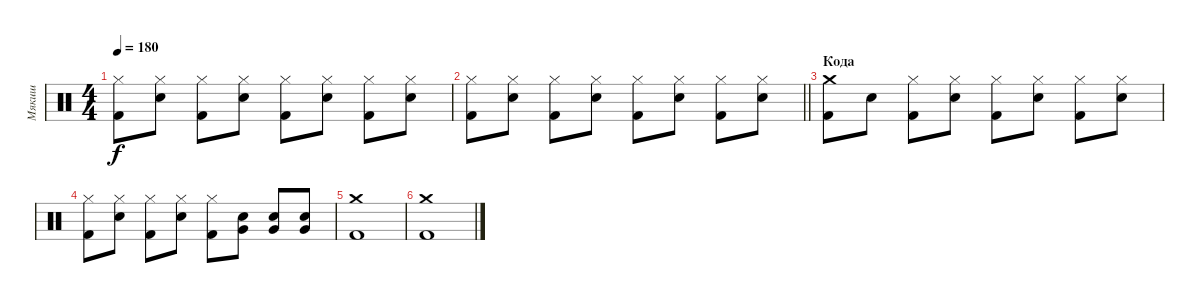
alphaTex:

\track ("Мякиш" "Мякиш") {instrument percussion}
\staff {score}
\articulation defaults
\ts (4 4)
\tempo 180
\clef neutral
\ks c
("Hi-Hat (closed)" "Kick (hit) 2").8{dy f} ("Hi-Hat (closed)" "Electric Snare (hit)").8 ("Hi-Hat (closed)" "Kick (hit) 2").8 ("Hi-Hat (closed)" "Electric Snare (hit)").8 ("Hi-Hat (closed)" "Kick (hit) 2").8 ("Hi-Hat (closed)" "Electric Snare (hit)").8 ("Hi-Hat (closed)" "Kick (hit) 2").8 ("Hi-Hat (closed)" "Electric Snare (hit)").8 |
\barLineRight lightlight
("Hi-Hat (closed)" "Kick (hit) 2").8 ("Hi-Hat (closed)" "Electric Snare (hit)").8 ("Hi-Hat (closed)" "Kick (hit) 2").8 ("Hi-Hat (closed)" "Electric Snare (hit)").8 ("Hi-Hat (closed)" "Kick (hit) 2").8 ("Hi-Hat (closed)" "Electric Snare (hit)").8 ("Hi-Hat (closed)" "Kick (hit) 2").8 ("Hi-Hat (closed)" "Electric Snare (hit)").8 |
\section ("" "Кода")
("Crash medium (hit)" "Kick (hit) 2").8 "Electric Snare (hit)".8 ("Hi-Hat (closed)" "Kick (hit) 2").8 ("Hi-Hat (closed)" "Electric Snare (hit)").8 ("Hi-Hat (closed)" "Kick (hit) 2").8 ("Hi-Hat (closed)" "Electric Snare (hit)").8 ("Hi-Hat (closed)" "Kick (hit) 2").8 ("Hi-Hat (closed)" "Electric Snare (hit)").8 |
("Hi-Hat (closed)" "Kick (hit) 2").8 ("Hi-Hat (closed)" "Electric Snare (hit)").8 ("Hi-Hat (closed)" "Kick (hit) 2").8 ("Hi-Hat (closed)" "Electric Snare (hit)").8 ("Hi-Hat (closed)" "Kick (hit) 2").8 ("Very Low Tom (hit)" "Electric Snare (hit)").8 ("Very Low Tom (hit)" "Electric Snare (hit)").8 ("Very Low Tom (hit)" "Electric Snare (hit)").8 |
("Crash medium (hit)" "Kick (hit) 2").1 |
("Crash medium (hit)" "Kick (hit) 2").1
